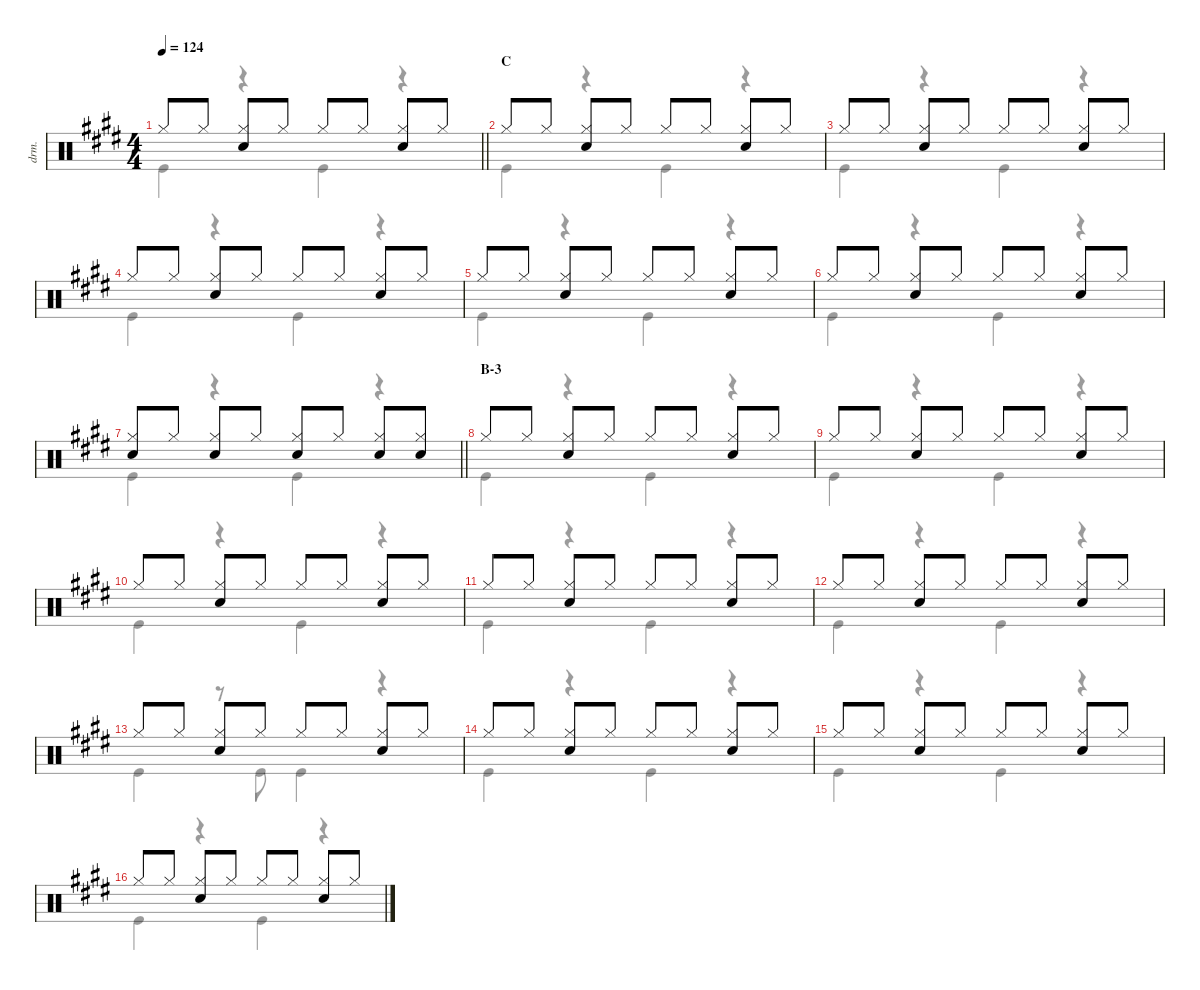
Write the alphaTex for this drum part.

\defaultSystemsLayout 4
\hideDynamics
\bracketExtendMode nobrackets
\track ("Drums" "drm.") {instrument percussion}
\staff {score}
\articulation defaults
\voice
\ts (4 4)
\tempo 124
\clef neutral
\barLineRight lightlight
\ks e "Hi-Hat (closed)"{acc forcenatural}.8{dy f} "Hi-Hat (closed)"{acc forcenatural}.8
("Hi-Hat (closed)"{acc forcenatural} "Snare (hit) 2"{acc forcenatural}).8 "Hi-Hat (closed)"{acc forcenatural}.8 "Hi-Hat (closed)"{acc forcenatural}.8 "Hi-Hat (closed)"{acc forcenatural}.8 ("Hi-Hat (closed)"{acc forcenatural} "Snare (hit) 2"{acc forcenatural}).8 "Hi-Hat (closed)"{acc forcenatural}.8 |
\section ("" "C")
"Hi-Hat (closed)"{acc forcenatural}.8 "Hi-Hat (closed)"{acc forcenatural}.8 ("Hi-Hat (closed)"{acc forcenatural} "Snare (hit) 2"{acc forcenatural}).8 "Hi-Hat (closed)"{acc forcenatural}.8 "Hi-Hat (closed)"{acc forcenatural}.8 "Hi-Hat (closed)"{acc forcenatural}.8 ("Hi-Hat (closed)"{acc forcenatural} "Snare (hit) 2"{acc forcenatural}).8 "Hi-Hat (closed)"{acc forcenatural}.8 |
"Hi-Hat (closed)"{acc forcenatural}.8 "Hi-Hat (closed)"{acc forcenatural}.8 ("Hi-Hat (closed)"{acc forcenatural} "Snare (hit) 2"{acc forcenatural}).8 "Hi-Hat (closed)"{acc forcenatural}.8 "Hi-Hat (closed)"{acc forcenatural}.8 "Hi-Hat (closed)"{acc forcenatural}.8 ("Hi-Hat (closed)"{acc forcenatural} "Snare (hit) 2"{acc forcenatural}).8 "Hi-Hat (closed)"{acc forcenatural}.8 |
"Hi-Hat (closed)"{acc forcenatural}.8 "Hi-Hat (closed)"{acc forcenatural}.8 ("Hi-Hat (closed)"{acc forcenatural} "Snare (hit) 2"{acc forcenatural}).8 "Hi-Hat (closed)"{acc forcenatural}.8 "Hi-Hat (closed)"{acc forcenatural}.8 "Hi-Hat (closed)"{acc forcenatural}.8 ("Hi-Hat (closed)"{acc forcenatural} "Snare (hit) 2"{acc forcenatural}).8 "Hi-Hat (closed)"{acc forcenatural}.8 |
"Hi-Hat (closed)"{acc forcenatural}.8 "Hi-Hat (closed)"{acc forcenatural}.8 ("Hi-Hat (closed)"{acc forcenatural} "Snare (hit) 2"{acc forcenatural}).8 "Hi-Hat (closed)"{acc forcenatural}.8 "Hi-Hat (closed)"{acc forcenatural}.8 "Hi-Hat (closed)"{acc forcenatural}.8 ("Hi-Hat (closed)"{acc forcenatural} "Snare (hit) 2"{acc forcenatural}).8 "Hi-Hat (closed)"{acc forcenatural}.8 |
"Hi-Hat (closed)"{acc forcenatural}.8 "Hi-Hat (closed)"{acc forcenatural}.8 ("Hi-Hat (closed)"{acc forcenatural} "Snare (hit) 2"{acc forcenatural}).8 "Hi-Hat (closed)"{acc forcenatural}.8 "Hi-Hat (closed)"{acc forcenatural}.8 "Hi-Hat (closed)"{acc forcenatural}.8 ("Hi-Hat (closed)"{acc forcenatural} "Snare (hit) 2"{acc forcenatural}).8 "Hi-Hat (closed)"{acc forcenatural}.8 |
\barLineRight lightlight
("Hi-Hat (closed)"{acc forcenatural} "Snare (hit) 2"{acc forcenatural}).8 "Hi-Hat (closed)"{acc forcenatural}.8 ("Hi-Hat (closed)"{acc forcenatural} "Snare (hit) 2"{acc forcenatural}).8 "Hi-Hat (closed)"{acc forcenatural}.8 ("Hi-Hat (closed)"{acc forcenatural} "Snare (hit) 2"{acc forcenatural}).8 "Hi-Hat (closed)"{acc forcenatural}.8 ("Hi-Hat (closed)"{acc forcenatural} "Snare (hit) 2"{acc forcenatural}).8 ("Hi-Hat (closed)"{acc forcenatural} "Snare (hit) 2"{acc forcenatural}).8 |
\section ("" "B-3")
"Hi-Hat (closed)"{acc forcenatural}.8 "Hi-Hat (closed)"{acc forcenatural}.8 ("Hi-Hat (closed)"{acc forcenatural} "Snare (hit) 2"{acc forcenatural}).8 "Hi-Hat (closed)"{acc forcenatural}.8 "Hi-Hat (closed)"{acc forcenatural}.8 "Hi-Hat (closed)"{acc forcenatural}.8 ("Hi-Hat (closed)"{acc forcenatural} "Snare (hit) 2"{acc forcenatural}).8 "Hi-Hat (closed)"{acc forcenatural}.8 |
"Hi-Hat (closed)"{acc forcenatural}.8 "Hi-Hat (closed)"{acc forcenatural}.8 ("Hi-Hat (closed)"{acc forcenatural} "Snare (hit) 2"{acc forcenatural}).8 "Hi-Hat (closed)"{acc forcenatural}.8 "Hi-Hat (closed)"{acc forcenatural}.8 "Hi-Hat (closed)"{acc forcenatural}.8 ("Hi-Hat (closed)"{acc forcenatural} "Snare (hit) 2"{acc forcenatural}).8 "Hi-Hat (closed)"{acc forcenatural}.8 |
"Hi-Hat (closed)"{acc forcenatural}.8 "Hi-Hat (closed)"{acc forcenatural}.8 ("Hi-Hat (closed)"{acc forcenatural} "Snare (hit) 2"{acc forcenatural}).8 "Hi-Hat (closed)"{acc forcenatural}.8 "Hi-Hat (closed)"{acc forcenatural}.8 "Hi-Hat (closed)"{acc forcenatural}.8 ("Hi-Hat (closed)"{acc forcenatural} "Snare (hit) 2"{acc forcenatural}).8 "Hi-Hat (closed)"{acc forcenatural}.8 |
"Hi-Hat (closed)"{acc forcenatural}.8 "Hi-Hat (closed)"{acc forcenatural}.8 ("Hi-Hat (closed)"{acc forcenatural} "Snare (hit) 2"{acc forcenatural}).8 "Hi-Hat (closed)"{acc forcenatural}.8 "Hi-Hat (closed)"{acc forcenatural}.8 "Hi-Hat (closed)"{acc forcenatural}.8 ("Hi-Hat (closed)"{acc forcenatural} "Snare (hit) 2"{acc forcenatural}).8 "Hi-Hat (closed)"{acc forcenatural}.8 |
"Hi-Hat (closed)"{acc forcenatural}.8 "Hi-Hat (closed)"{acc forcenatural}.8 ("Hi-Hat (closed)"{acc forcenatural} "Snare (hit) 2"{acc forcenatural}).8 "Hi-Hat (closed)"{acc forcenatural}.8 "Hi-Hat (closed)"{acc forcenatural}.8 "Hi-Hat (closed)"{acc forcenatural}.8 ("Hi-Hat (closed)"{acc forcenatural} "Snare (hit) 2"{acc forcenatural}).8 "Hi-Hat (closed)"{acc forcenatural}.8 |
"Hi-Hat (closed)"{acc forcenatural}.8 "Hi-Hat (closed)"{acc forcenatural}.8 ("Hi-Hat (closed)"{acc forcenatural} "Snare (hit) 2"{acc forcenatural}).8 "Hi-Hat (closed)"{acc forcenatural}.8 "Hi-Hat (closed)"{acc forcenatural}.8 "Hi-Hat (closed)"{acc forcenatural}.8 ("Hi-Hat (closed)"{acc forcenatural} "Snare (hit) 2"{acc forcenatural}).8 "Hi-Hat (closed)"{acc forcenatural}.8 |
"Hi-Hat (closed)"{acc forcenatural}.8 "Hi-Hat (closed)"{acc forcenatural}.8 ("Hi-Hat (closed)"{acc forcenatural} "Snare (hit) 2"{acc forcenatural}).8 "Hi-Hat (closed)"{acc forcenatural}.8 "Hi-Hat (closed)"{acc forcenatural}.8 "Hi-Hat (closed)"{acc forcenatural}.8 ("Hi-Hat (closed)"{acc forcenatural} "Snare (hit) 2"{acc forcenatural}).8 "Hi-Hat (closed)"{acc forcenatural}.8 |
"Hi-Hat (closed)"{acc forcenatural}.8 "Hi-Hat (closed)"{acc forcenatural}.8 ("Hi-Hat (closed)"{acc forcenatural} "Snare (hit) 2"{acc forcenatural}).8 "Hi-Hat (closed)"{acc forcenatural}.8 "Hi-Hat (closed)"{acc forcenatural}.8 "Hi-Hat (closed)"{acc forcenatural}.8 ("Hi-Hat (closed)"{acc forcenatural} "Snare (hit) 2"{acc forcenatural}).8 "Hi-Hat (closed)"{acc forcenatural}.8 |
"Hi-Hat (closed)"{acc forcenatural}.8 "Hi-Hat (closed)"{acc forcenatural}.8 ("Hi-Hat (closed)"{acc forcenatural} "Snare (hit) 2"{acc forcenatural}).8 "Hi-Hat (closed)"{acc forcenatural}.8 "Hi-Hat (closed)"{acc forcenatural}.8 "Hi-Hat (closed)"{acc forcenatural}.8 ("Hi-Hat (closed)"{acc forcenatural} "Snare (hit) 2"{acc forcenatural}).8 "Hi-Hat (closed)"{acc forcenatural}.8
\voice
\clef neutral
\ottava regular
\simile none
\barLineRight lightlight
\ks e "Kick (hit)"{acc forcenatural}.4{dy fff}
r.4 "Kick (hit)"{acc forcenatural}.4 r.4 |
"Kick (hit)"{acc forcenatural}.4 r.4 "Kick (hit)"{acc forcenatural}.4 r.4 |
"Kick (hit)"{acc forcenatural}.4 r.4 "Kick (hit)"{acc forcenatural}.4 r.4 |
"Kick (hit)"{acc forcenatural}.4 r.4 "Kick (hit)"{acc forcenatural}.4 r.4 |
"Kick (hit)"{acc forcenatural}.4 r.4 "Kick (hit)"{acc forcenatural}.4 r.4 |
"Kick (hit)"{acc forcenatural}.4 r.4 "Kick (hit)"{acc forcenatural}.4 r.4 |
\barLineRight lightlight "Kick (hit)"{acc forcenatural}.4
r.4 "Kick (hit)"{acc forcenatural}.4 r.4 |
"Kick (hit)"{acc forcenatural}.4 r.4 "Kick (hit)"{acc forcenatural}.4 r.4 |
"Kick (hit)"{acc forcenatural}.4 r.4 "Kick (hit)"{acc forcenatural}.4 r.4 |
"Kick (hit)"{acc forcenatural}.4 r.4 "Kick (hit)"{acc forcenatural}.4 r.4 |
"Kick (hit)"{acc forcenatural}.4 r.4 "Kick (hit)"{acc forcenatural}.4 r.4 |
"Kick (hit)"{acc forcenatural}.4 r.4 "Kick (hit)"{acc forcenatural}.4 r.4 |
"Kick (hit)"{acc forcenatural}.4 r.8 "Kick (hit)"{acc forcenatural}.8 "Kick (hit)"{acc forcenatural}.4 r.4 |
"Kick (hit)"{acc forcenatural}.4 r.4 "Kick (hit)"{acc forcenatural}.4 r.4 |
"Kick (hit)"{acc forcenatural}.4 r.4 "Kick (hit)"{acc forcenatural}.4 r.4 |
"Kick (hit)"{acc forcenatural}.4 r.4 "Kick (hit)"{acc forcenatural}.4 r.4
